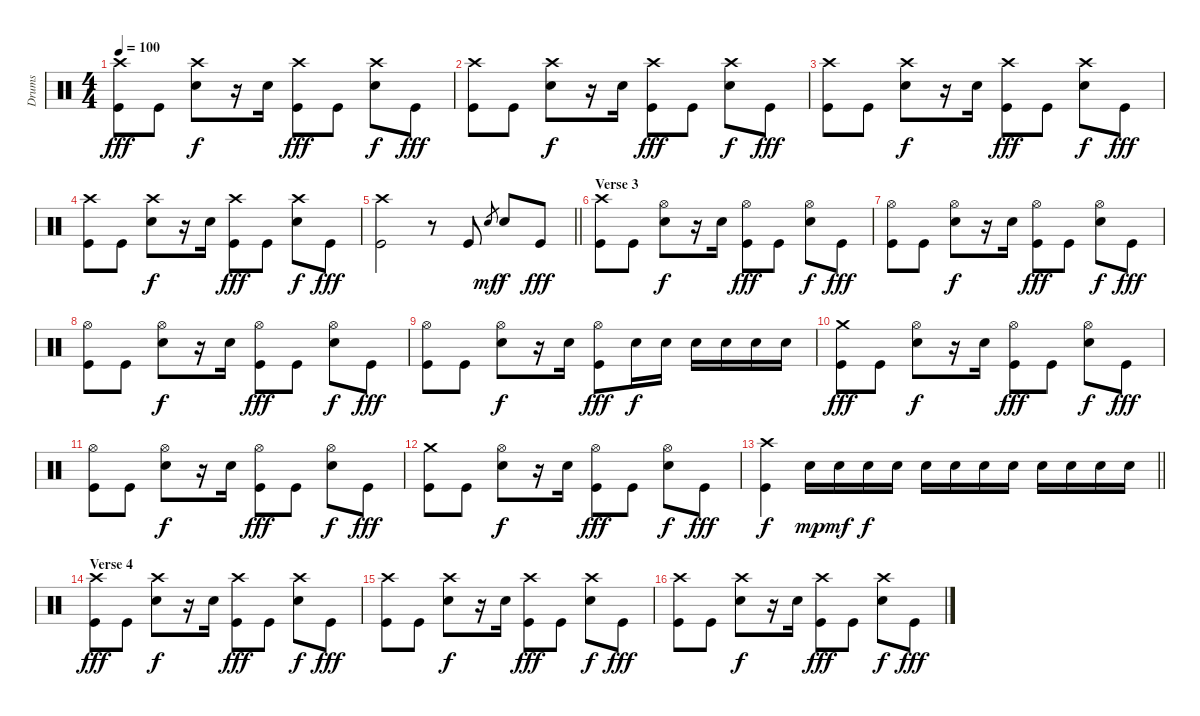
\track ("Drums" "Drums") {instrument percussion}
\staff {score}
\articulation defaults
\ts (4 4)
\tempo 100
\clef neutral
\ks c
("Crash high (hit)" "Kick (hit)").8{dy fff} "Kick (hit)".8 ("Crash high (hit)" "Electric Snare (hit)").8{dy f} r.16 "Electric Snare (hit)".16 ("Crash high (hit)" "Kick (hit)").8{dy fff} "Kick (hit)".8 ("Crash high (hit)" "Electric Snare (hit)").8{dy f} "Kick (hit)".8{dy fff} |
("Crash high (hit)" "Kick (hit)").8 "Kick (hit)".8 ("Crash high (hit)" "Electric Snare (hit)").8{dy f} r.16 "Electric Snare (hit)".16 ("Crash high (hit)" "Kick (hit)").8{dy fff} "Kick (hit)".8 ("Crash high (hit)" "Electric Snare (hit)").8{dy f} "Kick (hit)".8{dy fff} |
("Crash high (hit)" "Kick (hit)").8 "Kick (hit)".8 ("Crash high (hit)" "Electric Snare (hit)").8{dy f} r.16 "Electric Snare (hit)".16 ("Crash high (hit)" "Kick (hit)").8{dy fff} "Kick (hit)".8 ("Crash high (hit)" "Electric Snare (hit)").8{dy f} "Kick (hit)".8{dy fff} |
("Crash high (hit)" "Kick (hit)").8 "Kick (hit)".8 ("Crash high (hit)" "Electric Snare (hit)").8{dy f} r.16 "Electric Snare (hit)".16 ("Crash high (hit)" "Kick (hit)").8{dy fff} "Kick (hit)".8 ("Crash high (hit)" "Electric Snare (hit)").8{dy f} "Kick (hit)".8{dy fff} |
\barLineRight lightlight
("Crash high (hit)" "Kick (hit)").2 r.8 "Kick (hit)".8 "Electric Snare (hit)".8{gr dy mf} "Electric Snare (hit)".8{dy f} "Kick (hit)".8{dy fff} |
\section ("" "Verse 3")
("Crash high (hit)" "Kick (hit)").8 "Kick (hit)".8 ("Hi-Hat (open)" "Electric Snare (hit)").8{dy f} r.16 "Electric Snare (hit)".16 ("Hi-Hat (open)" "Kick (hit)").8{dy fff} "Kick (hit)".8 ("Hi-Hat (open)" "Electric Snare (hit)").8{dy f} "Kick (hit)".8{dy fff} |
("Hi-Hat (open)" "Kick (hit)").8 "Kick (hit)".8 ("Hi-Hat (open)" "Electric Snare (hit)").8{dy f} r.16 "Electric Snare (hit)".16 ("Hi-Hat (open)" "Kick (hit)").8{dy fff} "Kick (hit)".8 ("Hi-Hat (open)" "Electric Snare (hit)").8{dy f} "Kick (hit)".8{dy fff} |
("Hi-Hat (open)" "Kick (hit)").8 "Kick (hit)".8 ("Hi-Hat (open)" "Electric Snare (hit)").8{dy f} r.16 "Electric Snare (hit)".16 ("Hi-Hat (open)" "Kick (hit)").8{dy fff} "Kick (hit)".8 ("Hi-Hat (open)" "Electric Snare (hit)").8{dy f} "Kick (hit)".8{dy fff} |
("Hi-Hat (open)" "Kick (hit)").8 "Kick (hit)".8 ("Hi-Hat (open)" "Electric Snare (hit)").8{dy f} r.16 "Electric Snare (hit)".16 ("Hi-Hat (open)" "Kick (hit)").8{dy fff} "Electric Snare (hit)".16{dy f} "Electric Snare (hit)".16 "Electric Snare (hit)".16 "Electric Snare (hit)".16 "Electric Snare (hit)".16 "Electric Snare (hit)".16 |
("Crash medium (hit)" "Kick (hit)").8{dy fff} "Kick (hit)".8 ("Hi-Hat (open)" "Electric Snare (hit)").8{dy f} r.16 "Electric Snare (hit)".16 ("Hi-Hat (open)" "Kick (hit)").8{dy fff} "Kick (hit)".8 ("Hi-Hat (open)" "Electric Snare (hit)").8{dy f} "Kick (hit)".8{dy fff} |
("Hi-Hat (open)" "Kick (hit)").8 "Kick (hit)".8 ("Hi-Hat (open)" "Electric Snare (hit)").8{dy f} r.16 "Electric Snare (hit)".16 ("Hi-Hat (open)" "Kick (hit)").8{dy fff} "Kick (hit)".8 ("Hi-Hat (open)" "Electric Snare (hit)").8{dy f} "Kick (hit)".8{dy fff} |
("Crash medium (hit)" "Kick (hit)").8 "Kick (hit)".8 ("Hi-Hat (open)" "Electric Snare (hit)").8{dy f} r.16 "Electric Snare (hit)".16 ("Hi-Hat (open)" "Kick (hit)").8{dy fff} "Kick (hit)".8 ("Hi-Hat (open)" "Electric Snare (hit)").8{dy f} "Kick (hit)".8{dy fff} |
\barLineRight lightlight
("Crash high (hit)" "Kick (hit)").4{dy f} "Electric Snare (hit)".16{dy mp} "Electric Snare (hit)".16{dy mf} "Electric Snare (hit)".16{dy f} "Electric Snare (hit)".16 "Electric Snare (hit)".16 "Electric Snare (hit)".16 "Electric Snare (hit)".16 "Electric Snare (hit)".16 "Electric Snare (hit)".16 "Electric Snare (hit)".16 "Electric Snare (hit)".16 "Electric Snare (hit)".16 |
\section ("" "Verse 4")
("Crash high (hit)" "Kick (hit)").8{dy fff} "Kick (hit)".8 ("Crash high (hit)" "Electric Snare (hit)").8{dy f} r.16 "Electric Snare (hit)".16 ("Crash high (hit)" "Kick (hit)").8{dy fff} "Kick (hit)".8 ("Crash high (hit)" "Electric Snare (hit)").8{dy f} "Kick (hit)".8{dy fff} |
("Crash high (hit)" "Kick (hit)").8 "Kick (hit)".8 ("Crash high (hit)" "Electric Snare (hit)").8{dy f} r.16 "Electric Snare (hit)".16 ("Crash high (hit)" "Kick (hit)").8{dy fff} "Kick (hit)".8 ("Crash high (hit)" "Electric Snare (hit)").8{dy f} "Kick (hit)".8{dy fff} |
("Crash high (hit)" "Kick (hit)").8 "Kick (hit)".8 ("Crash high (hit)" "Electric Snare (hit)").8{dy f} r.16 "Electric Snare (hit)".16 ("Crash high (hit)" "Kick (hit)").8{dy fff} "Kick (hit)".8 ("Crash high (hit)" "Electric Snare (hit)").8{dy f} "Kick (hit)".8{dy fff}
